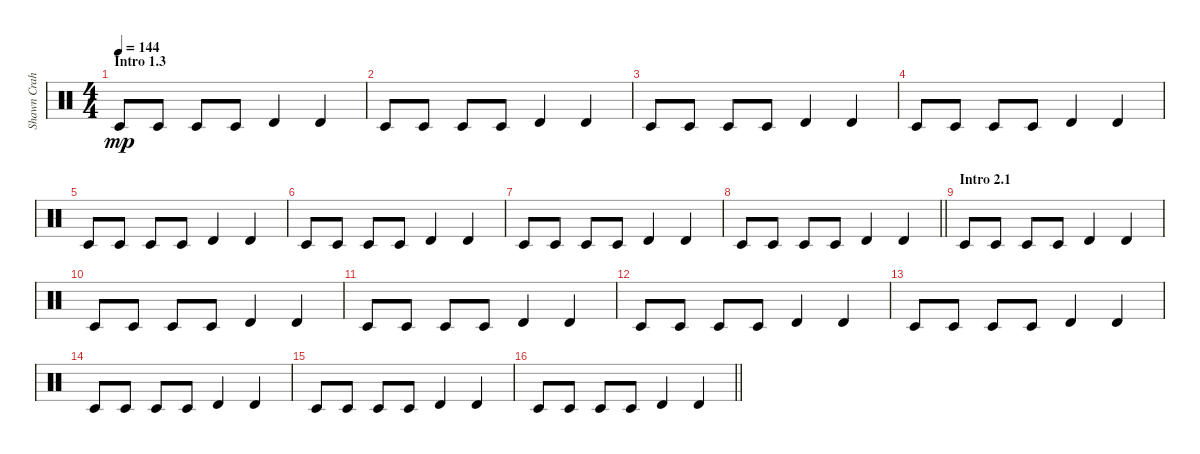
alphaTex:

\track ("Shawn Crahan" "Shawn Crah") {instrument percussion}
\staff {score}
\articulation defaults
\ts (4 4)
\section ("" "Intro 1.3")
\tempo 144
\clef neutral
\ks c "Timbale low (hit)".8{dy mp} "Timbale low (hit)".8 "Timbale low (hit)".8 "Timbale low (hit)".8 "Timbale high (hit)".4 "Timbale high (hit)".4
|
"Timbale low (hit)".8 "Timbale low (hit)".8 "Timbale low (hit)".8 "Timbale low (hit)".8 "Timbale high (hit)".4 "Timbale high (hit)".4 |
"Timbale low (hit)".8 "Timbale low (hit)".8 "Timbale low (hit)".8 "Timbale low (hit)".8 "Timbale high (hit)".4 "Timbale high (hit)".4 |
"Timbale low (hit)".8 "Timbale low (hit)".8 "Timbale low (hit)".8 "Timbale low (hit)".8 "Timbale high (hit)".4 "Timbale high (hit)".4 |
"Timbale low (hit)".8 "Timbale low (hit)".8 "Timbale low (hit)".8 "Timbale low (hit)".8 "Timbale high (hit)".4 "Timbale high (hit)".4 |
"Timbale low (hit)".8 "Timbale low (hit)".8 "Timbale low (hit)".8 "Timbale low (hit)".8 "Timbale high (hit)".4 "Timbale high (hit)".4 |
"Timbale low (hit)".8 "Timbale low (hit)".8 "Timbale low (hit)".8 "Timbale low (hit)".8 "Timbale high (hit)".4 "Timbale high (hit)".4 |
\barLineRight lightlight "Timbale low (hit)".8 "Timbale low (hit)".8 "Timbale low (hit)".8 "Timbale low (hit)".8 "Timbale high (hit)".4 "Timbale high (hit)".4
|
\section ("" "Intro 2.1")
"Timbale low (hit)".8 "Timbale low (hit)".8 "Timbale low (hit)".8 "Timbale low (hit)".8 "Timbale high (hit)".4 "Timbale high (hit)".4 |
"Timbale low (hit)".8 "Timbale low (hit)".8 "Timbale low (hit)".8 "Timbale low (hit)".8 "Timbale high (hit)".4 "Timbale high (hit)".4 |
"Timbale low (hit)".8 "Timbale low (hit)".8 "Timbale low (hit)".8 "Timbale low (hit)".8 "Timbale high (hit)".4 "Timbale high (hit)".4 |
"Timbale low (hit)".8 "Timbale low (hit)".8 "Timbale low (hit)".8 "Timbale low (hit)".8 "Timbale high (hit)".4 "Timbale high (hit)".4 |
"Timbale low (hit)".8 "Timbale low (hit)".8 "Timbale low (hit)".8 "Timbale low (hit)".8 "Timbale high (hit)".4 "Timbale high (hit)".4 |
"Timbale low (hit)".8 "Timbale low (hit)".8 "Timbale low (hit)".8 "Timbale low (hit)".8 "Timbale high (hit)".4 "Timbale high (hit)".4 |
"Timbale low (hit)".8 "Timbale low (hit)".8 "Timbale low (hit)".8 "Timbale low (hit)".8 "Timbale high (hit)".4 "Timbale high (hit)".4 |
\barLineRight lightlight "Timbale low (hit)".8 "Timbale low (hit)".8 "Timbale low (hit)".8 "Timbale low (hit)".8 "Timbale high (hit)".4 "Timbale high (hit)".4
